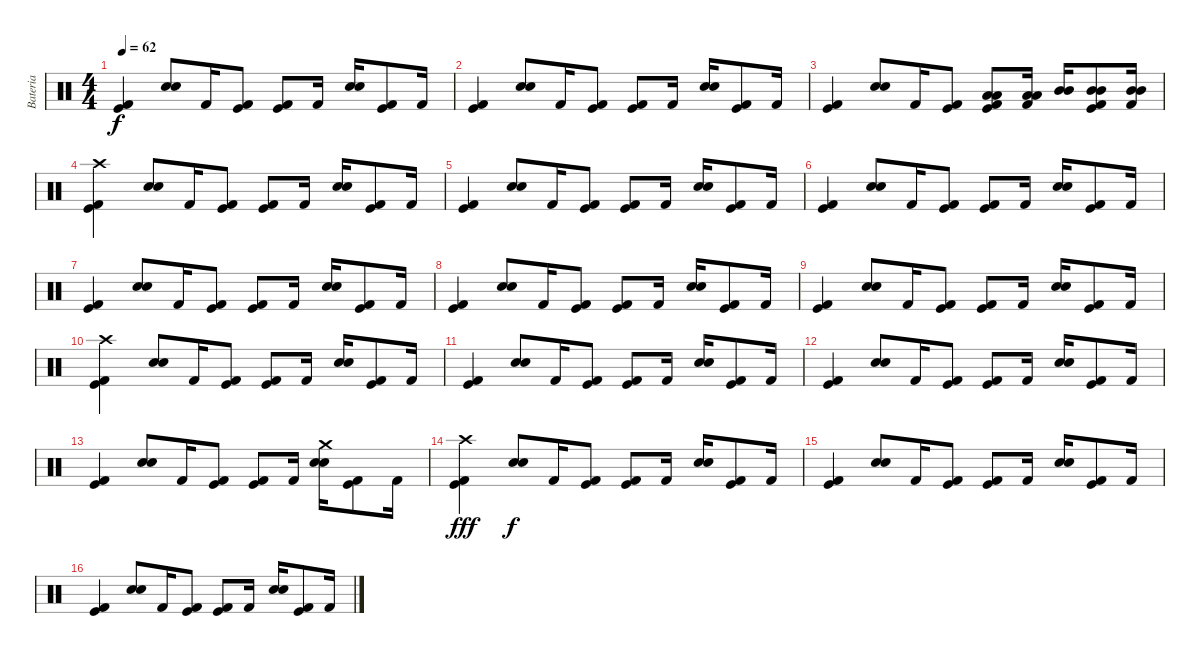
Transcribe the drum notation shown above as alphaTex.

\track ("Bateria" "Bateria") {instrument percussion}
\staff {score}
\articulation defaults
\ts (4 4)
\tempo 62
\clef neutral
\ks c
("Kick (hit)" "Kick (hit) 2").4{dy f} ("Snare (hit) 2" "Electric Snare (hit)").8 "Kick (hit) 2".16 ("Kick (hit)" "Kick (hit) 2").8 ("Kick (hit)" "Kick (hit) 2").8 "Kick (hit) 2".16 ("Snare (hit) 2" "Electric Snare (hit)").16 ("Kick (hit)" "Kick (hit) 2").8 "Kick (hit) 2".16 |
("Kick (hit)" "Kick (hit) 2").4 ("Snare (hit) 2" "Electric Snare (hit)").8 "Kick (hit) 2".16 ("Kick (hit)" "Kick (hit) 2").8 ("Kick (hit)" "Kick (hit) 2").8 "Kick (hit) 2".16 ("Snare (hit) 2" "Electric Snare (hit)").16 ("Kick (hit)" "Kick (hit) 2").8 "Kick (hit) 2".16 |
("Kick (hit)" "Kick (hit) 2").4 ("Snare (hit) 2" "Electric Snare (hit)").8 "Kick (hit) 2".16 ("Kick (hit)" "Kick (hit) 2").8 ("Low Tom (hit)" "Low Tom (hit)" "Kick (hit)" "Kick (hit) 2").8 ("Low Tom (hit)" "Low Tom (hit)" "Kick (hit) 2").16 ("Mid Tom (hit)" "Mid Tom (hit)").16 ("Mid Tom (hit)" "Mid Tom (hit)" "Kick (hit)" "Kick (hit) 2").8 ("Mid Tom (hit)" "Mid Tom (hit)" "Kick (hit) 2").16 |
("Crash high (hit)" "Kick (hit)" "Kick (hit) 2").4 ("Snare (hit) 2" "Electric Snare (hit)").8 "Kick (hit) 2".16 ("Kick (hit)" "Kick (hit) 2").8 ("Kick (hit)" "Kick (hit) 2").8 "Kick (hit) 2".16 ("Snare (hit) 2" "Electric Snare (hit)").16 ("Kick (hit)" "Kick (hit) 2").8 "Kick (hit) 2".16 |
("Kick (hit)" "Kick (hit) 2").4 ("Snare (hit) 2" "Electric Snare (hit)").8 "Kick (hit) 2".16 ("Kick (hit)" "Kick (hit) 2").8 ("Kick (hit)" "Kick (hit) 2").8 "Kick (hit) 2".16 ("Snare (hit) 2" "Electric Snare (hit)").16 ("Kick (hit)" "Kick (hit) 2").8 "Kick (hit) 2".16 |
("Kick (hit)" "Kick (hit) 2").4 ("Snare (hit) 2" "Electric Snare (hit)").8 "Kick (hit) 2".16 ("Kick (hit)" "Kick (hit) 2").8 ("Kick (hit)" "Kick (hit) 2").8 "Kick (hit) 2".16 ("Snare (hit) 2" "Electric Snare (hit)").16 ("Kick (hit)" "Kick (hit) 2").8 "Kick (hit) 2".16 |
("Kick (hit)" "Kick (hit) 2").4 ("Snare (hit) 2" "Electric Snare (hit)").8 "Kick (hit) 2".16 ("Kick (hit)" "Kick (hit) 2").8 ("Kick (hit)" "Kick (hit) 2").8 "Kick (hit) 2".16 ("Snare (hit) 2" "Electric Snare (hit)").16 ("Kick (hit)" "Kick (hit) 2").8 "Kick (hit) 2".16 |
("Kick (hit)" "Kick (hit) 2").4 ("Snare (hit) 2" "Electric Snare (hit)").8 "Kick (hit) 2".16 ("Kick (hit)" "Kick (hit) 2").8 ("Kick (hit)" "Kick (hit) 2").8 "Kick (hit) 2".16 ("Snare (hit) 2" "Electric Snare (hit)").16 ("Kick (hit)" "Kick (hit) 2").8 "Kick (hit) 2".16 |
("Kick (hit)" "Kick (hit) 2").4 ("Snare (hit) 2" "Electric Snare (hit)").8 "Kick (hit) 2".16 ("Kick (hit)" "Kick (hit) 2").8 ("Kick (hit)" "Kick (hit) 2").8 "Kick (hit) 2".16 ("Snare (hit) 2" "Electric Snare (hit)").16 ("Kick (hit)" "Kick (hit) 2").8 "Kick (hit) 2".16 |
("Crash high (hit)" "Kick (hit)" "Kick (hit) 2").4 ("Snare (hit) 2" "Electric Snare (hit)").8 "Kick (hit) 2".16 ("Kick (hit)" "Kick (hit) 2").8 ("Kick (hit)" "Kick (hit) 2").8 "Kick (hit) 2".16 ("Snare (hit) 2" "Electric Snare (hit)").16 ("Kick (hit)" "Kick (hit) 2").8 "Kick (hit) 2".16 |
("Kick (hit)" "Kick (hit) 2").4 ("Snare (hit) 2" "Electric Snare (hit)").8 "Kick (hit) 2".16 ("Kick (hit)" "Kick (hit) 2").8 ("Kick (hit)" "Kick (hit) 2").8 "Kick (hit) 2".16 ("Snare (hit) 2" "Electric Snare (hit)").16 ("Kick (hit)" "Kick (hit) 2").8 "Kick (hit) 2".16 |
("Kick (hit)" "Kick (hit) 2").4 ("Snare (hit) 2" "Electric Snare (hit)").8 "Kick (hit) 2".16 ("Kick (hit)" "Kick (hit) 2").8 ("Kick (hit)" "Kick (hit) 2").8 "Kick (hit) 2".16 ("Snare (hit) 2" "Electric Snare (hit)").16 ("Kick (hit)" "Kick (hit) 2").8 "Kick (hit) 2".16 |
("Kick (hit)" "Kick (hit) 2").4 ("Snare (hit) 2" "Electric Snare (hit)").8 "Kick (hit) 2".16 ("Kick (hit)" "Kick (hit) 2").8 ("Kick (hit)" "Kick (hit) 2").8 "Kick (hit) 2".16 ("Crash medium (hit)" "Snare (hit) 2" "Electric Snare (hit)").16 ("Kick (hit)" "Kick (hit) 2").8 "Kick (hit) 2".16 |
("Crash high (hit)" "Kick (hit)" "Kick (hit) 2").4{dy fff} ("Snare (hit) 2" "Electric Snare (hit)").8{dy f} "Kick (hit) 2".16 ("Kick (hit)" "Kick (hit) 2").8 ("Kick (hit)" "Kick (hit) 2").8 "Kick (hit) 2".16 ("Snare (hit) 2" "Electric Snare (hit)").16 ("Kick (hit)" "Kick (hit) 2").8 "Kick (hit) 2".16 |
("Kick (hit)" "Kick (hit) 2").4 ("Snare (hit) 2" "Electric Snare (hit)").8 "Kick (hit) 2".16 ("Kick (hit)" "Kick (hit) 2").8 ("Kick (hit)" "Kick (hit) 2").8 "Kick (hit) 2".16 ("Snare (hit) 2" "Electric Snare (hit)").16 ("Kick (hit)" "Kick (hit) 2").8 "Kick (hit) 2".16 |
("Kick (hit)" "Kick (hit) 2").4 ("Snare (hit) 2" "Electric Snare (hit)").8 "Kick (hit) 2".16 ("Kick (hit)" "Kick (hit) 2").8 ("Kick (hit)" "Kick (hit) 2").8 "Kick (hit) 2".16 ("Snare (hit) 2" "Electric Snare (hit)").16 ("Kick (hit)" "Kick (hit) 2").8 "Kick (hit) 2".16
